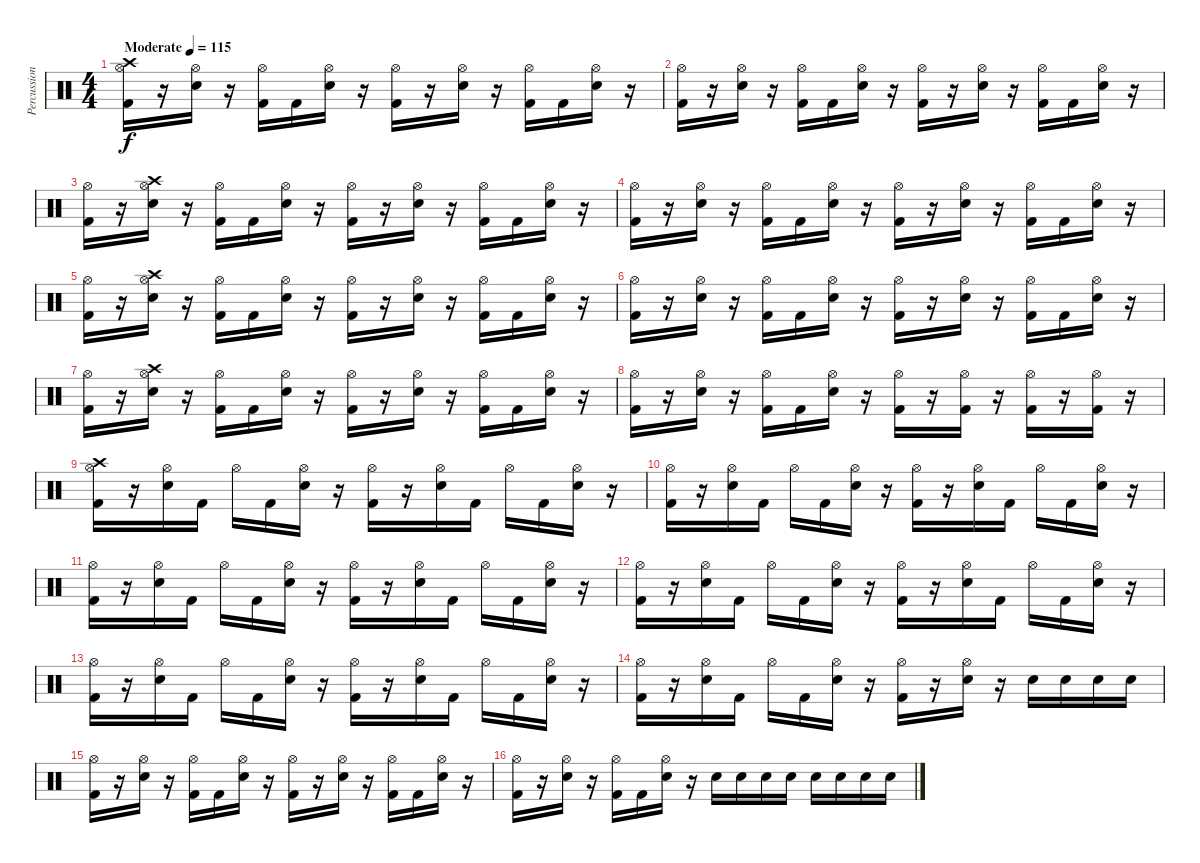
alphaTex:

\track ("Percussion" "Percussion") {instrument percussion}
\staff {score}
\articulation defaults
\ts (4 4)
\tempo (115 "Moderate")
\clef neutral
\ks c
("Crash high (hit)" "Hi-Hat (open)" "Kick (hit) 2").16{dy f} r.16 ("Hi-Hat (open)" "Electric Snare (hit)").16 r.16 ("Hi-Hat (open)" "Kick (hit) 2").16 "Kick (hit) 2".16 ("Hi-Hat (open)" "Electric Snare (hit)").16 r.16 ("Hi-Hat (open)" "Kick (hit) 2").16 r.16 ("Hi-Hat (open)" "Electric Snare (hit)").16 r.16 ("Hi-Hat (open)" "Kick (hit) 2").16 "Kick (hit) 2".16 ("Hi-Hat (open)" "Electric Snare (hit)").16 r.16 |
("Hi-Hat (open)" "Kick (hit) 2").16 r.16 ("Hi-Hat (open)" "Electric Snare (hit)").16 r.16 ("Hi-Hat (open)" "Kick (hit) 2").16 "Kick (hit) 2".16 ("Hi-Hat (open)" "Electric Snare (hit)").16 r.16 ("Hi-Hat (open)" "Kick (hit) 2").16 r.16 ("Hi-Hat (open)" "Electric Snare (hit)").16 r.16 ("Hi-Hat (open)" "Kick (hit) 2").16 "Kick (hit) 2".16 ("Hi-Hat (open)" "Electric Snare (hit)").16 r.16 |
("Hi-Hat (open)" "Kick (hit) 2").16 r.16 ("Hi-Hat (open)" "Crash high (hit)" "Electric Snare (hit)").16 r.16 ("Hi-Hat (open)" "Kick (hit) 2").16 "Kick (hit) 2".16 ("Hi-Hat (open)" "Electric Snare (hit)").16 r.16 ("Hi-Hat (open)" "Kick (hit) 2").16 r.16 ("Hi-Hat (open)" "Electric Snare (hit)").16 r.16 ("Hi-Hat (open)" "Kick (hit) 2").16 "Kick (hit) 2".16 ("Hi-Hat (open)" "Electric Snare (hit)").16 r.16 |
("Hi-Hat (open)" "Kick (hit) 2").16 r.16 ("Hi-Hat (open)" "Electric Snare (hit)").16 r.16 ("Hi-Hat (open)" "Kick (hit) 2").16 "Kick (hit) 2".16 ("Hi-Hat (open)" "Electric Snare (hit)").16 r.16 ("Hi-Hat (open)" "Kick (hit) 2").16 r.16 ("Hi-Hat (open)" "Electric Snare (hit)").16 r.16 ("Hi-Hat (open)" "Kick (hit) 2").16 "Kick (hit) 2".16 ("Hi-Hat (open)" "Electric Snare (hit)").16 r.16 |
("Hi-Hat (open)" "Kick (hit) 2").16 r.16 ("Hi-Hat (open)" "Crash high (hit)" "Electric Snare (hit)").16 r.16 ("Hi-Hat (open)" "Kick (hit) 2").16 "Kick (hit) 2".16 ("Hi-Hat (open)" "Electric Snare (hit)").16 r.16 ("Hi-Hat (open)" "Kick (hit) 2").16 r.16 ("Hi-Hat (open)" "Electric Snare (hit)").16 r.16 ("Hi-Hat (open)" "Kick (hit) 2").16 "Kick (hit) 2".16 ("Hi-Hat (open)" "Electric Snare (hit)").16 r.16 |
("Hi-Hat (open)" "Kick (hit) 2").16 r.16 ("Hi-Hat (open)" "Electric Snare (hit)").16 r.16 ("Hi-Hat (open)" "Kick (hit) 2").16 "Kick (hit) 2".16 ("Hi-Hat (open)" "Electric Snare (hit)").16 r.16 ("Hi-Hat (open)" "Kick (hit) 2").16 r.16 ("Hi-Hat (open)" "Electric Snare (hit)").16 r.16 ("Hi-Hat (open)" "Kick (hit) 2").16 "Kick (hit) 2".16 ("Hi-Hat (open)" "Electric Snare (hit)").16 r.16 |
("Hi-Hat (open)" "Kick (hit) 2").16 r.16 ("Hi-Hat (open)" "Crash high (hit)" "Electric Snare (hit)").16 r.16 ("Hi-Hat (open)" "Kick (hit) 2").16 "Kick (hit) 2".16 ("Hi-Hat (open)" "Electric Snare (hit)").16 r.16 ("Hi-Hat (open)" "Kick (hit) 2").16 r.16 ("Hi-Hat (open)" "Electric Snare (hit)").16 r.16 ("Hi-Hat (open)" "Kick (hit) 2").16 "Kick (hit) 2".16 ("Hi-Hat (open)" "Electric Snare (hit)").16 r.16 |
("Hi-Hat (open)" "Kick (hit) 2").16 r.16 ("Hi-Hat (open)" "Electric Snare (hit)").16 r.16 ("Hi-Hat (open)" "Kick (hit) 2").16 "Kick (hit) 2".16 ("Hi-Hat (open)" "Electric Snare (hit)").16 r.16 ("Hi-Hat (open)" "Kick (hit) 2").16 r.16 ("Hi-Hat (open)" "Kick (hit) 2").16 r.16 ("Hi-Hat (open)" "Kick (hit) 2").16 r.16 ("Hi-Hat (open)" "Kick (hit) 2").16 r.16 |
("Hi-Hat (open)" "Crash high (hit)" "Kick (hit) 2").16 r.16 ("Hi-Hat (open)" "Electric Snare (hit)").16 "Kick (hit) 2".16 "Hi-Hat (open)".16 "Kick (hit) 2".16 ("Hi-Hat (open)" "Electric Snare (hit)").16 r.16 ("Hi-Hat (open)" "Kick (hit) 2").16 r.16 ("Hi-Hat (open)" "Electric Snare (hit)").16 "Kick (hit) 2".16 "Hi-Hat (open)".16 "Kick (hit) 2".16 ("Hi-Hat (open)" "Electric Snare (hit)").16 r.16 |
("Hi-Hat (open)" "Kick (hit) 2").16 r.16 ("Hi-Hat (open)" "Electric Snare (hit)").16 "Kick (hit) 2".16 "Hi-Hat (open)".16 "Kick (hit) 2".16 ("Hi-Hat (open)" "Electric Snare (hit)").16 r.16 ("Hi-Hat (open)" "Kick (hit) 2").16 r.16 ("Hi-Hat (open)" "Electric Snare (hit)").16 "Kick (hit) 2".16 "Hi-Hat (open)".16 "Kick (hit) 2".16 ("Hi-Hat (open)" "Electric Snare (hit)").16 r.16 |
("Hi-Hat (open)" "Kick (hit) 2").16 r.16 ("Hi-Hat (open)" "Electric Snare (hit)").16 "Kick (hit) 2".16 "Hi-Hat (open)".16 "Kick (hit) 2".16 ("Hi-Hat (open)" "Electric Snare (hit)").16 r.16 ("Hi-Hat (open)" "Kick (hit) 2").16 r.16 ("Hi-Hat (open)" "Electric Snare (hit)").16 "Kick (hit) 2".16 "Hi-Hat (open)".16 "Kick (hit) 2".16 ("Hi-Hat (open)" "Electric Snare (hit)").16 r.16 |
("Hi-Hat (open)" "Kick (hit) 2").16 r.16 ("Hi-Hat (open)" "Electric Snare (hit)").16 "Kick (hit) 2".16 "Hi-Hat (open)".16 "Kick (hit) 2".16 ("Hi-Hat (open)" "Electric Snare (hit)").16 r.16 ("Hi-Hat (open)" "Kick (hit) 2").16 r.16 ("Hi-Hat (open)" "Electric Snare (hit)").16 "Kick (hit) 2".16 "Hi-Hat (open)".16 "Kick (hit) 2".16 ("Hi-Hat (open)" "Electric Snare (hit)").16 r.16 |
("Hi-Hat (open)" "Kick (hit) 2").16 r.16 ("Hi-Hat (open)" "Electric Snare (hit)").16 "Kick (hit) 2".16 "Hi-Hat (open)".16 "Kick (hit) 2".16 ("Hi-Hat (open)" "Electric Snare (hit)").16 r.16 ("Hi-Hat (open)" "Kick (hit) 2").16 r.16 ("Hi-Hat (open)" "Electric Snare (hit)").16 "Kick (hit) 2".16 "Hi-Hat (open)".16 "Kick (hit) 2".16 ("Hi-Hat (open)" "Electric Snare (hit)").16 r.16 |
("Hi-Hat (open)" "Kick (hit) 2").16 r.16 ("Hi-Hat (open)" "Electric Snare (hit)").16 "Kick (hit) 2".16 "Hi-Hat (open)".16 "Kick (hit) 2".16 ("Hi-Hat (open)" "Electric Snare (hit)").16 r.16 ("Hi-Hat (open)" "Kick (hit) 2").16 r.16 ("Hi-Hat (open)" "Electric Snare (hit)").16 r.16 "Electric Snare (hit)".16 "Electric Snare (hit)".16 "Electric Snare (hit)".16 "Electric Snare (hit)".16 |
("Hi-Hat (open)" "Kick (hit) 2").16 r.16 ("Hi-Hat (open)" "Electric Snare (hit)").16 r.16 ("Hi-Hat (open)" "Kick (hit) 2").16 "Kick (hit) 2".16 ("Hi-Hat (open)" "Electric Snare (hit)").16 r.16 ("Hi-Hat (open)" "Kick (hit) 2").16 r.16 ("Hi-Hat (open)" "Electric Snare (hit)").16 r.16 ("Hi-Hat (open)" "Kick (hit) 2").16 "Kick (hit) 2".16 ("Hi-Hat (open)" "Electric Snare (hit)").16 r.16 |
("Hi-Hat (open)" "Kick (hit) 2").16 r.16 ("Hi-Hat (open)" "Electric Snare (hit)").16 r.16 ("Hi-Hat (open)" "Kick (hit) 2").16 "Kick (hit) 2".16 ("Hi-Hat (open)" "Electric Snare (hit)").16 r.16 "Electric Snare (hit)".16 "Electric Snare (hit)".16 "Electric Snare (hit)".16 "Electric Snare (hit)".16 "Electric Snare (hit)".16 "Electric Snare (hit)".16 "Electric Snare (hit)".16 "Electric Snare (hit)".16
